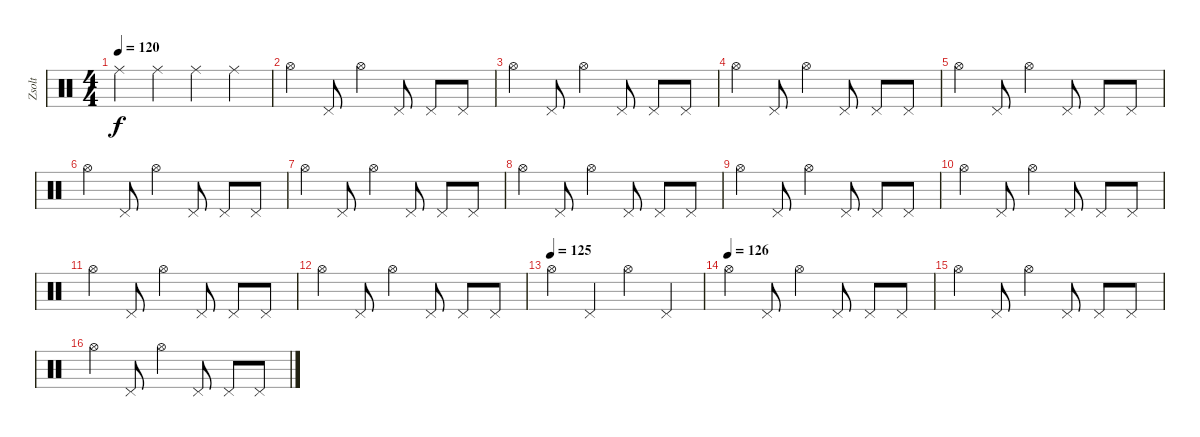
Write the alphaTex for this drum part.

\track ("Zsolt" "Zsolt") {instrument percussion}
\staff {score}
\articulation defaults
\ts (4 4)
\tempo 120
\clef neutral
\ks c "Ride (middle)".4{dy f} "Ride (middle)".4 "Ride (middle)".4 "Ride (middle)".4
|
"Hi-Hat (open)".4 "Pedal Hi-Hat (hit)".8 "Hi-Hat (open)".4 "Pedal Hi-Hat (hit)".8 "Pedal Hi-Hat (hit)".8 "Pedal Hi-Hat (hit)".8 |
"Hi-Hat (open)".4 "Pedal Hi-Hat (hit)".8 "Hi-Hat (open)".4 "Pedal Hi-Hat (hit)".8 "Pedal Hi-Hat (hit)".8 "Pedal Hi-Hat (hit)".8 |
"Hi-Hat (open)".4 "Pedal Hi-Hat (hit)".8 "Hi-Hat (open)".4 "Pedal Hi-Hat (hit)".8 "Pedal Hi-Hat (hit)".8 "Pedal Hi-Hat (hit)".8 |
"Hi-Hat (open)".4 "Pedal Hi-Hat (hit)".8 "Hi-Hat (open)".4 "Pedal Hi-Hat (hit)".8 "Pedal Hi-Hat (hit)".8 "Pedal Hi-Hat (hit)".8 |
"Hi-Hat (open)".4 "Pedal Hi-Hat (hit)".8 "Hi-Hat (open)".4 "Pedal Hi-Hat (hit)".8 "Pedal Hi-Hat (hit)".8 "Pedal Hi-Hat (hit)".8 |
"Hi-Hat (open)".4 "Pedal Hi-Hat (hit)".8 "Hi-Hat (open)".4 "Pedal Hi-Hat (hit)".8 "Pedal Hi-Hat (hit)".8 "Pedal Hi-Hat (hit)".8 |
"Hi-Hat (open)".4 "Pedal Hi-Hat (hit)".8 "Hi-Hat (open)".4 "Pedal Hi-Hat (hit)".8 "Pedal Hi-Hat (hit)".8 "Pedal Hi-Hat (hit)".8 |
"Hi-Hat (open)".4 "Pedal Hi-Hat (hit)".8 "Hi-Hat (open)".4 "Pedal Hi-Hat (hit)".8 "Pedal Hi-Hat (hit)".8 "Pedal Hi-Hat (hit)".8 |
"Hi-Hat (open)".4 "Pedal Hi-Hat (hit)".8 "Hi-Hat (open)".4 "Pedal Hi-Hat (hit)".8 "Pedal Hi-Hat (hit)".8 "Pedal Hi-Hat (hit)".8 |
"Hi-Hat (open)".4 "Pedal Hi-Hat (hit)".8 "Hi-Hat (open)".4 "Pedal Hi-Hat (hit)".8 "Pedal Hi-Hat (hit)".8 "Pedal Hi-Hat (hit)".8 |
"Hi-Hat (open)".4 "Pedal Hi-Hat (hit)".8 "Hi-Hat (open)".4 "Pedal Hi-Hat (hit)".8 "Pedal Hi-Hat (hit)".8 "Pedal Hi-Hat (hit)".8 |
\tempo (125)
"Hi-Hat (open)".4 "Pedal Hi-Hat (hit)".4 "Hi-Hat (open)".4 "Pedal Hi-Hat (hit)".4 |
\tempo (126)
"Hi-Hat (open)".4 "Pedal Hi-Hat (hit)".8 "Hi-Hat (open)".4 "Pedal Hi-Hat (hit)".8 "Pedal Hi-Hat (hit)".8 "Pedal Hi-Hat (hit)".8 |
"Hi-Hat (open)".4 "Pedal Hi-Hat (hit)".8 "Hi-Hat (open)".4 "Pedal Hi-Hat (hit)".8 "Pedal Hi-Hat (hit)".8 "Pedal Hi-Hat (hit)".8 |
"Hi-Hat (open)".4 "Pedal Hi-Hat (hit)".8 "Hi-Hat (open)".4 "Pedal Hi-Hat (hit)".8 "Pedal Hi-Hat (hit)".8 "Pedal Hi-Hat (hit)".8
